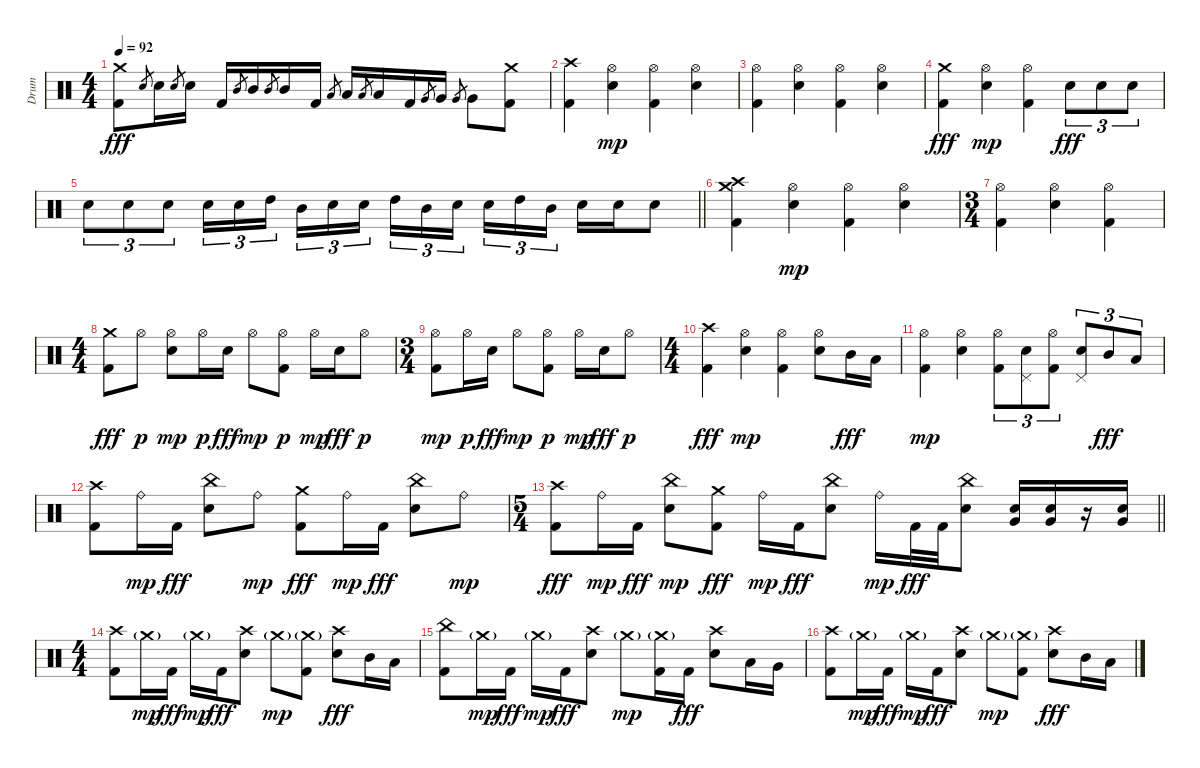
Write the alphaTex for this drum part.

\track ("Drum" "Drum") {instrument percussion}
\staff {score}
\articulation defaults
\ts (4 4)
\tempo 92
\clef neutral
\ks c
("Kick (hit) 2" "Crash medium (hit)").8{dy fff} "Electric Snare (hit)".8{gr} "Electric Snare (hit)".16 "Electric Snare (hit)".8{gr} "Electric Snare (hit)".16 "Kick (hit) 2".16 "Mid Tom (hit)".8{gr} "Mid Tom (hit)".16 "Mid Tom (hit)".8{gr} "Mid Tom (hit)".16 "Kick (hit) 2".16 "Low Tom (hit)".8{gr} "Low Tom (hit)".16 "Low Tom (hit)".8{gr} "Low Tom (hit)".16 "Kick (hit) 2".16 "Very Low Tom (hit)".8{gr} "Very Low Tom (hit)".16 "Very Low Tom (hit)".8{gr} "Very Low Tom (hit)".8 ("Kick (hit) 2" "Crash medium (hit)").8 |
("Kick (hit) 2" "Crash high (hit)").4 ("Electric Snare (hit)" "Hi-Hat (open)").4{dy mp} ("Kick (hit) 2" "Hi-Hat (open)").4 ("Electric Snare (hit)" "Hi-Hat (open)").4 |
("Kick (hit) 2" "Hi-Hat (open)").4 ("Electric Snare (hit)" "Hi-Hat (open)").4 ("Kick (hit) 2" "Hi-Hat (open)").4 ("Electric Snare (hit)" "Hi-Hat (open)").4 |
("Kick (hit) 2" "Crash medium (hit)").4{dy fff} ("Electric Snare (hit)" "Hi-Hat (open)").4{dy mp} ("Kick (hit) 2" "Hi-Hat (open)").4 "Electric Snare (hit)".8{tu (3 2) dy fff} "Electric Snare (hit)".8{tu (3 2)} "Electric Snare (hit)".8{tu (3 2)} |
\barLineRight lightlight "Electric Snare (hit)".8{tu (3 2)} "Electric Snare (hit)".8{tu (3 2)} "Electric Snare (hit)".8{tu (3 2)} "Electric Snare (hit)".16{tu (3 2)} "Electric Snare (hit)".16{tu (3 2)} "High Tom (hit)".16{tu (3 2) beam splitsecondary} "Mid Tom (hit)".16{tu (3 2)} "Electric Snare (hit)".16{tu (3 2)} "Electric Snare (hit)".16{tu (3 2)} "High Tom (hit)".16{tu (3 2)} "Mid Tom (hit)".16{tu (3 2)} "Electric Snare (hit)".16{tu (3 2) beam splitsecondary} "Electric Snare (hit)".16{tu (3 2)} "High Tom (hit)".16{tu (3 2)} "Mid Tom (hit)".16{tu (3 2)} "Electric Snare (hit)".16 "Electric Snare (hit)".16 "Electric Snare (hit)".8
|
("Kick (hit) 2" "Crash high (hit)" "Crash medium (hit)").4 ("Electric Snare (hit)" "Hi-Hat (open)").4{dy mp} ("Kick (hit) 2" "Hi-Hat (open)").4 ("Electric Snare (hit)" "Hi-Hat (open)").4 |
\ts (3 4)
("Kick (hit) 2" "Hi-Hat (open)").4 ("Electric Snare (hit)" "Hi-Hat (open)").4 ("Kick (hit) 2" "Hi-Hat (open)").4 |
\ts (4 4)
("Kick (hit) 2" "Crash medium (hit)").8{dy fff} "Hi-Hat (open)".8{dy p} ("Electric Snare (hit)" "Hi-Hat (open)").8{dy mp} "Hi-Hat (open)".16{dy p} "Electric Snare (hit)".16{dy fff} "Hi-Hat (open)".8{dy mp} ("Kick (hit) 2" "Hi-Hat (open)").8{dy p} "Hi-Hat (open)".16{dy mp} "Electric Snare (hit)".16{dy fff} "Hi-Hat (open)".8{dy p} |
\ts (3 4)
("Kick (hit) 2" "Hi-Hat (open)").8{dy mp} "Hi-Hat (open)".16{dy p} "Electric Snare (hit)".16{dy fff} "Hi-Hat (open)".8{dy mp} ("Kick (hit) 2" "Hi-Hat (open)").8{dy p} "Hi-Hat (open)".16{dy mp} "Electric Snare (hit)".16{dy fff} "Hi-Hat (open)".8{dy p} |
\ts (4 4)
("Kick (hit) 2" "Crash high (hit)").4{dy fff} ("Electric Snare (hit)" "Hi-Hat (open)").4{dy mp} ("Kick (hit) 2" "Hi-Hat (open)").4 ("Electric Snare (hit)" "Hi-Hat (open)").8 "Mid Tom (hit)".16{dy fff} "Low Tom (hit)".16 |
("Kick (hit) 2" "Hi-Hat (open)").4{dy mp} ("Electric Snare (hit)" "Hi-Hat (open)").4 ("Kick (hit) 2" "Hi-Hat (open)").8{tu (3 2)} ("Electric Snare (hit)" "Pedal Hi-Hat (hit)").8{tu (3 2)} ("Kick (hit) 2" "Hi-Hat (open)").8{tu (3 2)} ("Electric Snare (hit)" "Pedal Hi-Hat (hit)").8{tu (3 2)} "Mid Tom (hit)".8{tu (3 2) dy fff} "Low Tom (hit)".8{tu (3 2)} |
("Kick (hit) 2" "Crash high (hit)").8 "Ride (bell)".16{dy mp} "Kick (hit) 2".16{dy fff} ("Electric Snare (hit)" "China (hit)").8 "Ride (bell)".8{dy mp} ("Kick (hit) 2" "Crash medium (hit)").8{dy fff} "Ride (bell)".16{dy mp} "Kick (hit) 2".16{dy fff} ("Electric Snare (hit)" "China (hit)").8 "Ride (bell)".8{dy mp} |
\ts (5 4)
\barLineRight lightlight
("Kick (hit) 2" "Crash high (hit)").8{dy fff} "Ride (bell)".16{dy mp} "Kick (hit) 2".16{dy fff} ("Electric Snare (hit)" "China (hit)").8{dy mp} ("Kick (hit) 2" "Crash medium (hit)").8{dy fff} "Ride (bell)".16{dy mp} "Kick (hit) 2".16{dy fff} ("Electric Snare (hit)" "China (hit)").8 "Ride (bell)".16{dy mp} "Kick (hit) 2".32{dy fff} "Kick (hit) 2".32 ("Electric Snare (hit)" "China (hit)").8 ("Electric Snare (hit)" "Very Low Tom (hit)").16 ("Electric Snare (hit)" "Very Low Tom (hit)").16 r.16 ("Electric Snare (hit)" "Very Low Tom (hit)").16 |
\ts (4 4)
("Kick (hit) 2" "Crash high (hit)").8 "Crash medium (hit)"{g}.16{dy mp} "Kick (hit) 2".16{dy fff} "Crash medium (hit)"{g}.16{dy mp} "Kick (hit) 2".16{dy fff} ("Electric Snare (hit)" "Crash high (hit)").8 "Crash medium (hit)"{g}.8{dy mp} ("Kick (hit) 2" "Crash medium (hit)"{g}).8 ("Electric Snare (hit)" "Crash high (hit)").8{dy fff} "Mid Tom (hit)".16 "Low Tom (hit)".16 |
("Kick (hit) 2" "China (hit)").8 "Crash medium (hit)"{g}.16{dy mp} "Kick (hit) 2".16{dy fff} "Crash medium (hit)"{g}.16{dy mp} "Kick (hit) 2".16{dy fff} ("Electric Snare (hit)" "Crash high (hit)").8 "Crash medium (hit)"{g}.8{dy mp} ("Kick (hit) 2" "Crash medium (hit)"{g}).16 "Kick (hit) 2".16{dy fff} ("Electric Snare (hit)" "Crash high (hit)").8 "Low Tom (hit)".16 "Very Low Tom (hit)".16 |
("Kick (hit) 2" "Crash high (hit)").8 "Crash medium (hit)"{g}.16{dy mp} "Kick (hit) 2".16{dy fff} "Crash medium (hit)"{g}.16{dy mp} "Kick (hit) 2".16{dy fff} ("Electric Snare (hit)" "Crash high (hit)").8 "Crash medium (hit)"{g}.8{dy mp} ("Kick (hit) 2" "Crash medium (hit)"{g}).8 ("Electric Snare (hit)" "Crash high (hit)").8{dy fff} "Mid Tom (hit)".16 "Low Tom (hit)".16
